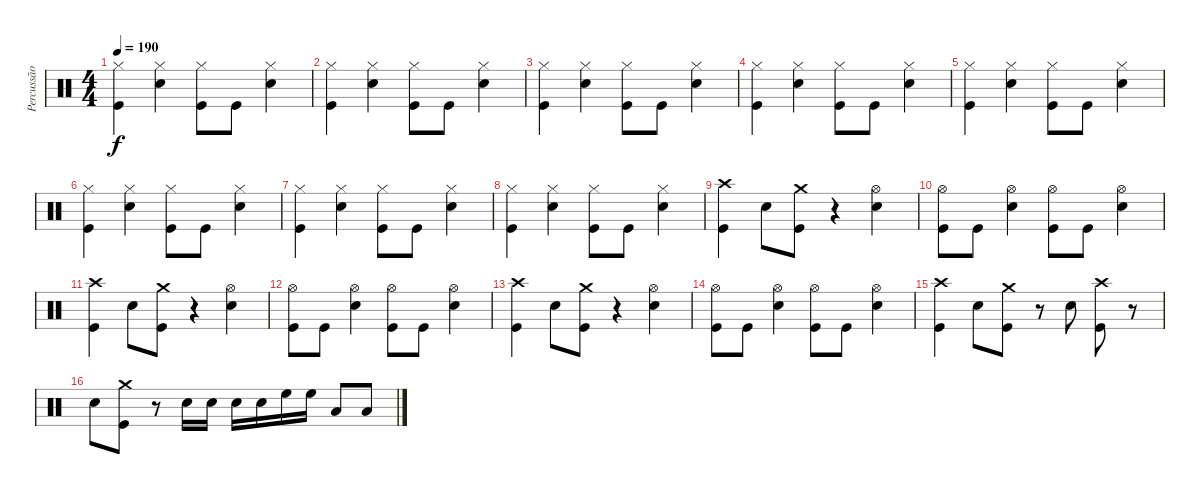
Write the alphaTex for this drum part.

\track ("Percussão" "Percussão") {instrument percussion}
\staff {score}
\articulation defaults
\ts (4 4)
\tempo 190
\clef neutral
\ks c
("Hi-Hat (closed)" "Kick (hit)").4{dy f} ("Hi-Hat (closed)" "Snare (hit) 2").4 ("Hi-Hat (closed)" "Kick (hit)").8 "Kick (hit)".8 ("Hi-Hat (closed)" "Snare (hit) 2").4 |
("Hi-Hat (closed)" "Kick (hit)").4 ("Hi-Hat (closed)" "Snare (hit) 2").4 ("Hi-Hat (closed)" "Kick (hit)").8 "Kick (hit)".8 ("Hi-Hat (closed)" "Snare (hit) 2").4 |
("Hi-Hat (closed)" "Kick (hit)").4 ("Hi-Hat (closed)" "Snare (hit) 2").4 ("Hi-Hat (closed)" "Kick (hit)").8 "Kick (hit)".8 ("Hi-Hat (closed)" "Snare (hit) 2").4 |
("Hi-Hat (closed)" "Kick (hit)").4 ("Hi-Hat (closed)" "Snare (hit) 2").4 ("Hi-Hat (closed)" "Kick (hit)").8 "Kick (hit)".8 ("Hi-Hat (closed)" "Snare (hit) 2").4 |
("Hi-Hat (closed)" "Kick (hit)").4 ("Hi-Hat (closed)" "Snare (hit) 2").4 ("Hi-Hat (closed)" "Kick (hit)").8 "Kick (hit)".8 ("Hi-Hat (closed)" "Snare (hit) 2").4 |
("Hi-Hat (closed)" "Kick (hit)").4 ("Hi-Hat (closed)" "Snare (hit) 2").4 ("Hi-Hat (closed)" "Kick (hit)").8 "Kick (hit)".8 ("Hi-Hat (closed)" "Snare (hit) 2").4 |
("Hi-Hat (closed)" "Kick (hit)").4 ("Hi-Hat (closed)" "Snare (hit) 2").4 ("Hi-Hat (closed)" "Kick (hit)").8 "Kick (hit)".8 ("Hi-Hat (closed)" "Snare (hit) 2").4 |
("Hi-Hat (closed)" "Kick (hit)").4 ("Hi-Hat (closed)" "Snare (hit) 2").4 ("Hi-Hat (closed)" "Kick (hit)").8 "Kick (hit)".8 ("Hi-Hat (closed)" "Snare (hit) 2").4 |
("Crash high (hit)" "Kick (hit)").4 "Snare (hit) 2".8 ("Crash medium (hit)" "Kick (hit)").8 r.4 ("Hi-Hat (open)" "Snare (hit) 2").4 |
("Hi-Hat (open)" "Kick (hit)").8 "Kick (hit)".8 ("Hi-Hat (open)" "Snare (hit) 2").4 ("Hi-Hat (open)" "Kick (hit)").8 "Kick (hit)".8 ("Hi-Hat (open)" "Snare (hit) 2").4 |
("Crash high (hit)" "Kick (hit)").4 "Snare (hit) 2".8 ("Crash medium (hit)" "Kick (hit)").8 r.4 ("Hi-Hat (open)" "Snare (hit) 2").4 |
("Hi-Hat (open)" "Kick (hit)").8 "Kick (hit)".8 ("Hi-Hat (open)" "Snare (hit) 2").4 ("Hi-Hat (open)" "Kick (hit)").8 "Kick (hit)".8 ("Hi-Hat (open)" "Snare (hit) 2").4 |
("Crash high (hit)" "Kick (hit)").4 "Snare (hit) 2".8 ("Crash medium (hit)" "Kick (hit)").8 r.4 ("Hi-Hat (open)" "Snare (hit) 2").4 |
("Hi-Hat (open)" "Kick (hit)").8 "Kick (hit)".8 ("Hi-Hat (open)" "Snare (hit) 2").4 ("Hi-Hat (open)" "Kick (hit)").8 "Kick (hit)".8 ("Hi-Hat (open)" "Snare (hit) 2").4 |
("Crash high (hit)" "Kick (hit)").4 "Snare (hit) 2".8 ("Crash medium (hit)" "Kick (hit)").8 r.8 "Snare (hit) 2".8 ("Crash high (hit)" "Kick (hit)").8 r.8 |
"Snare (hit) 2".8 ("Crash medium (hit)" "Kick (hit)").8 r.8 "Snare (hit) 2".16 "Snare (hit) 2".16 "Snare (hit) 2".16 "Snare (hit) 2".16 "High Floor Tom (hit)".16 "High Floor Tom (hit)".16 "Low Floor Tom (hit)".8 "Low Floor Tom (hit)".8
